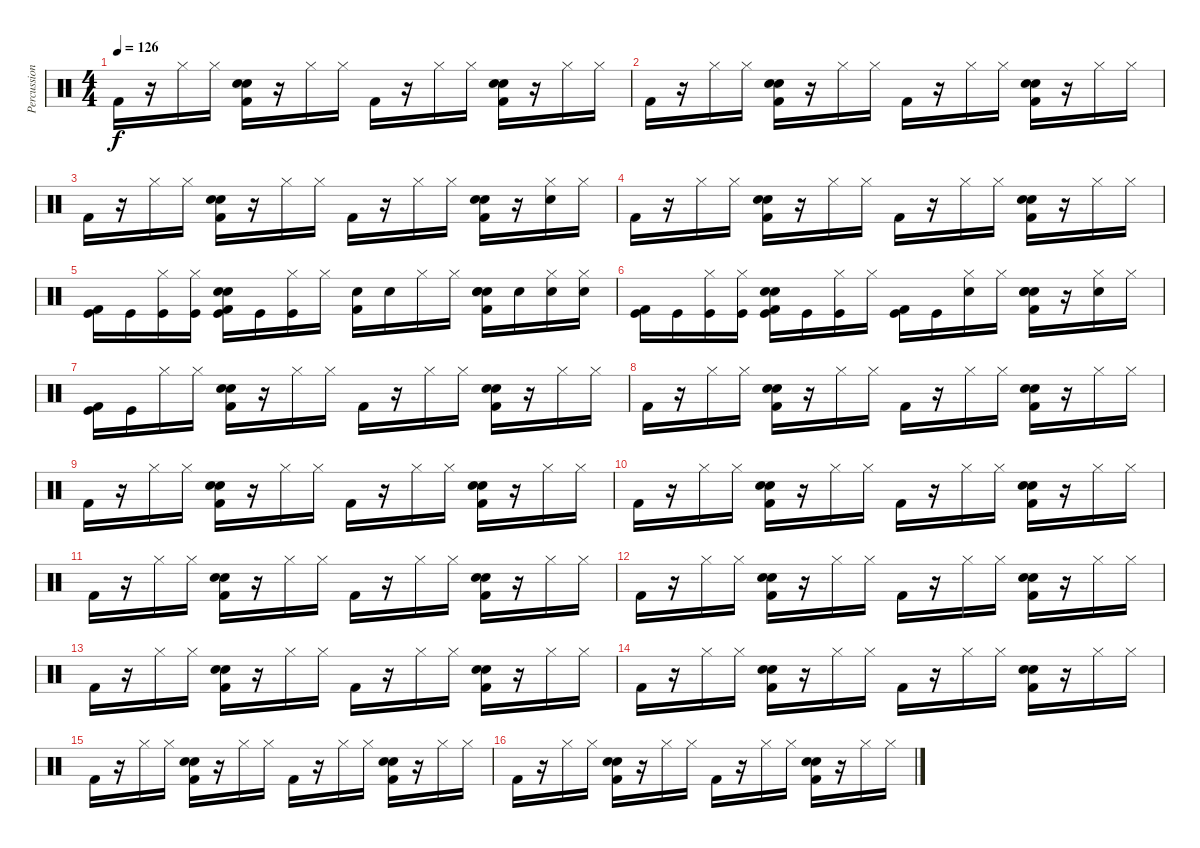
\track ("Percussion" "Percussion") {instrument percussion}
\staff {score}
\articulation defaults
\ts (4 4)
\tempo 126
\clef neutral
\ks c "Kick (hit) 2".16{dy f}
r.16 "Hi-Hat (closed)".16 "Hi-Hat (closed)".16 ("Hand Clap (hit)" "Electric Snare (hit)" "Kick (hit) 2").16 r.16 "Hi-Hat (closed)".16 "Hi-Hat (closed)".16 "Kick (hit) 2".16 r.16 "Hi-Hat (closed)".16 "Hi-Hat (closed)".16 ("Hand Clap (hit)" "Electric Snare (hit)" "Kick (hit) 2").16 r.16 "Hi-Hat (closed)".16 "Hi-Hat (closed)".16 |
"Kick (hit) 2".16 r.16 "Hi-Hat (closed)".16 "Hi-Hat (closed)".16 ("Hand Clap (hit)" "Electric Snare (hit)" "Kick (hit) 2").16 r.16 "Hi-Hat (closed)".16 "Hi-Hat (closed)".16 "Kick (hit) 2".16 r.16 "Hi-Hat (closed)".16 "Hi-Hat (closed)".16 ("Hand Clap (hit)" "Electric Snare (hit)" "Kick (hit) 2").16 r.16 "Hi-Hat (closed)".16 "Hi-Hat (closed)".16 |
"Kick (hit) 2".16 r.16 "Hi-Hat (closed)".16 "Hi-Hat (closed)".16 ("Hand Clap (hit)" "Electric Snare (hit)" "Kick (hit) 2").16 r.16 "Hi-Hat (closed)".16 "Hi-Hat (closed)".16 "Kick (hit) 2".16 r.16 "Hi-Hat (closed)".16 "Hi-Hat (closed)".16 ("Hand Clap (hit)" "Electric Snare (hit)" "Kick (hit) 2").16 r.16 ("Hi-Hat (closed)" "Snare (hit) 2").16 "Hi-Hat (closed)".16 |
"Kick (hit) 2".16 r.16 "Hi-Hat (closed)".16 "Hi-Hat (closed)".16 ("Hand Clap (hit)" "Electric Snare (hit)" "Kick (hit) 2").16 r.16 "Hi-Hat (closed)".16 "Hi-Hat (closed)".16 "Kick (hit) 2".16 r.16 "Hi-Hat (closed)".16 "Hi-Hat (closed)".16 ("Hand Clap (hit)" "Electric Snare (hit)" "Kick (hit) 2").16 r.16 "Hi-Hat (closed)".16 "Hi-Hat (closed)".16 |
("Kick (hit)" "Kick (hit) 2").16 "Kick (hit)".16 ("Hi-Hat (closed)" "Kick (hit)").16 ("Hi-Hat (closed)" "Kick (hit)").16 ("Kick (hit)" "Hand Clap (hit)" "Electric Snare (hit)" "Kick (hit) 2").16 "Kick (hit)".16 ("Hi-Hat (closed)" "Kick (hit)").16 "Hi-Hat (closed)".16 ("Snare (hit) 2" "Kick (hit) 2").16 "Snare (hit) 2".16 "Hi-Hat (closed)".16 "Hi-Hat (closed)".16 ("Snare (hit) 2" "Hand Clap (hit)" "Electric Snare (hit)" "Kick (hit) 2").16 "Snare (hit) 2".16 ("Hi-Hat (closed)" "Snare (hit) 2").16 ("Hi-Hat (closed)" "Snare (hit) 2").16 |
("Kick (hit)" "Kick (hit) 2").16 "Kick (hit)".16 ("Hi-Hat (closed)" "Kick (hit)").16 ("Hi-Hat (closed)" "Kick (hit)").16 ("Kick (hit)" "Hand Clap (hit)" "Electric Snare (hit)" "Kick (hit) 2").16 "Kick (hit)".16 ("Hi-Hat (closed)" "Kick (hit)").16 "Hi-Hat (closed)".16 ("Kick (hit)" "Kick (hit) 2").16 "Kick (hit)".16 ("Hi-Hat (closed)" "Snare (hit) 2").16 "Hi-Hat (closed)".16 ("Snare (hit) 2" "Hand Clap (hit)" "Electric Snare (hit)" "Kick (hit) 2").16 r.16 ("Hi-Hat (closed)" "Snare (hit) 2").16 "Hi-Hat (closed)".16 |
("Kick (hit)" "Kick (hit) 2").16 "Kick (hit)".16 "Hi-Hat (closed)".16 "Hi-Hat (closed)".16 ("Hand Clap (hit)" "Electric Snare (hit)" "Kick (hit) 2").16 r.16 "Hi-Hat (closed)".16 "Hi-Hat (closed)".16 "Kick (hit) 2".16 r.16 "Hi-Hat (closed)".16 "Hi-Hat (closed)".16 ("Hand Clap (hit)" "Electric Snare (hit)" "Kick (hit) 2").16 r.16 "Hi-Hat (closed)".16 "Hi-Hat (closed)".16 |
"Kick (hit) 2".16 r.16 "Hi-Hat (closed)".16 "Hi-Hat (closed)".16 ("Hand Clap (hit)" "Electric Snare (hit)" "Kick (hit) 2").16 r.16 "Hi-Hat (closed)".16 "Hi-Hat (closed)".16 "Kick (hit) 2".16 r.16 "Hi-Hat (closed)".16 "Hi-Hat (closed)".16 ("Hand Clap (hit)" "Electric Snare (hit)" "Kick (hit) 2").16 r.16 "Hi-Hat (closed)".16 "Hi-Hat (closed)".16 |
"Kick (hit) 2".16 r.16 "Hi-Hat (closed)".16 "Hi-Hat (closed)".16 ("Hand Clap (hit)" "Electric Snare (hit)" "Kick (hit) 2").16 r.16 "Hi-Hat (closed)".16 "Hi-Hat (closed)".16 "Kick (hit) 2".16 r.16 "Hi-Hat (closed)".16 "Hi-Hat (closed)".16 ("Hand Clap (hit)" "Electric Snare (hit)" "Kick (hit) 2").16 r.16 "Hi-Hat (closed)".16 "Hi-Hat (closed)".16 |
"Kick (hit) 2".16 r.16 "Hi-Hat (closed)".16 "Hi-Hat (closed)".16 ("Hand Clap (hit)" "Electric Snare (hit)" "Kick (hit) 2").16 r.16 "Hi-Hat (closed)".16 "Hi-Hat (closed)".16 "Kick (hit) 2".16 r.16 "Hi-Hat (closed)".16 "Hi-Hat (closed)".16 ("Hand Clap (hit)" "Electric Snare (hit)" "Kick (hit) 2").16 r.16 "Hi-Hat (closed)".16 "Hi-Hat (closed)".16 |
"Kick (hit) 2".16 r.16 "Hi-Hat (closed)".16 "Hi-Hat (closed)".16 ("Hand Clap (hit)" "Electric Snare (hit)" "Kick (hit) 2").16 r.16 "Hi-Hat (closed)".16 "Hi-Hat (closed)".16 "Kick (hit) 2".16 r.16 "Hi-Hat (closed)".16 "Hi-Hat (closed)".16 ("Hand Clap (hit)" "Electric Snare (hit)" "Kick (hit) 2").16 r.16 "Hi-Hat (closed)".16 "Hi-Hat (closed)".16 |
"Kick (hit) 2".16 r.16 "Hi-Hat (closed)".16 "Hi-Hat (closed)".16 ("Hand Clap (hit)" "Electric Snare (hit)" "Kick (hit) 2").16 r.16 "Hi-Hat (closed)".16 "Hi-Hat (closed)".16 "Kick (hit) 2".16 r.16 "Hi-Hat (closed)".16 "Hi-Hat (closed)".16 ("Hand Clap (hit)" "Electric Snare (hit)" "Kick (hit) 2").16 r.16 "Hi-Hat (closed)".16 "Hi-Hat (closed)".16 |
"Kick (hit) 2".16 r.16 "Hi-Hat (closed)".16 "Hi-Hat (closed)".16 ("Hand Clap (hit)" "Electric Snare (hit)" "Kick (hit) 2").16 r.16 "Hi-Hat (closed)".16 "Hi-Hat (closed)".16 "Kick (hit) 2".16 r.16 "Hi-Hat (closed)".16 "Hi-Hat (closed)".16 ("Hand Clap (hit)" "Electric Snare (hit)" "Kick (hit) 2").16 r.16 "Hi-Hat (closed)".16 "Hi-Hat (closed)".16 |
"Kick (hit) 2".16 r.16 "Hi-Hat (closed)".16 "Hi-Hat (closed)".16 ("Hand Clap (hit)" "Electric Snare (hit)" "Kick (hit) 2").16 r.16 "Hi-Hat (closed)".16 "Hi-Hat (closed)".16 "Kick (hit) 2".16 r.16 "Hi-Hat (closed)".16 "Hi-Hat (closed)".16 ("Hand Clap (hit)" "Electric Snare (hit)" "Kick (hit) 2").16 r.16 "Hi-Hat (closed)".16 "Hi-Hat (closed)".16 |
"Kick (hit) 2".16 r.16 "Hi-Hat (closed)".16 "Hi-Hat (closed)".16 ("Hand Clap (hit)" "Electric Snare (hit)" "Kick (hit) 2").16 r.16 "Hi-Hat (closed)".16 "Hi-Hat (closed)".16 "Kick (hit) 2".16 r.16 "Hi-Hat (closed)".16 "Hi-Hat (closed)".16 ("Hand Clap (hit)" "Electric Snare (hit)" "Kick (hit) 2").16 r.16 "Hi-Hat (closed)".16 "Hi-Hat (closed)".16 |
"Kick (hit) 2".16 r.16 "Hi-Hat (closed)".16 "Hi-Hat (closed)".16 ("Hand Clap (hit)" "Electric Snare (hit)" "Kick (hit) 2").16 r.16 "Hi-Hat (closed)".16 "Hi-Hat (closed)".16 "Kick (hit) 2".16 r.16 "Hi-Hat (closed)".16 "Hi-Hat (closed)".16 ("Hand Clap (hit)" "Electric Snare (hit)" "Kick (hit) 2").16 r.16 "Hi-Hat (closed)".16 "Hi-Hat (closed)".16
